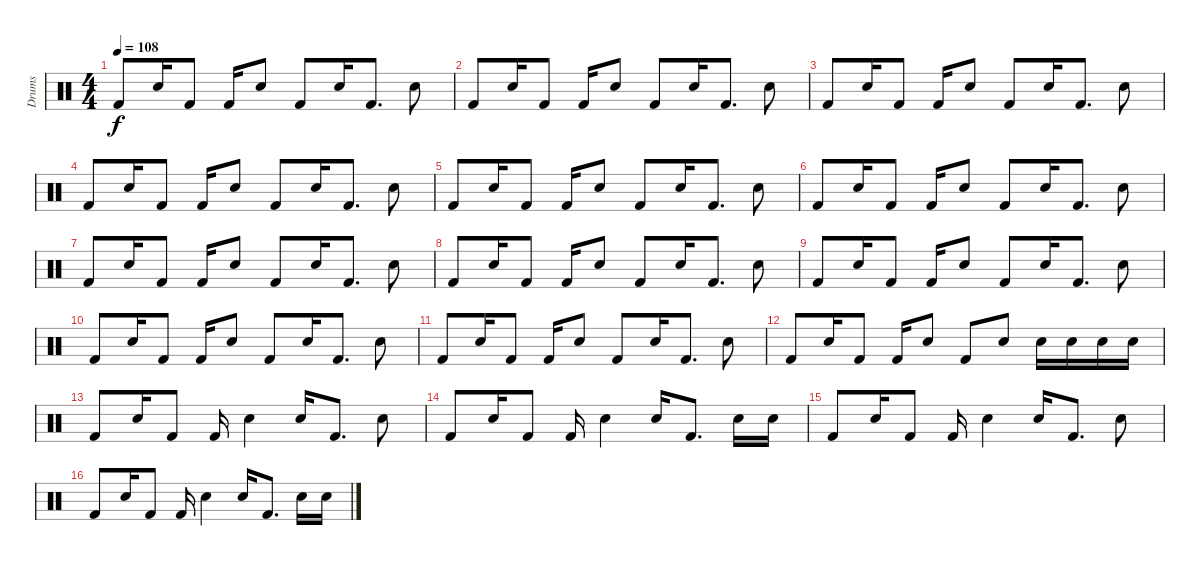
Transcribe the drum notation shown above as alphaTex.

\track ("Drums" "Drums") {instrument percussion}
\staff {score}
\articulation defaults
\ts (4 4)
\tempo 108
\clef neutral
\ks c "Kick (hit) 2".8{dy f} "Electric Snare (hit)".16 "Kick (hit) 2".8 "Kick (hit) 2".16 "Electric Snare (hit)".8 "Kick (hit) 2".8 "Electric Snare (hit)".16 "Kick (hit) 2".8{d} "Electric Snare (hit)".8
|
"Kick (hit) 2".8 "Electric Snare (hit)".16 "Kick (hit) 2".8 "Kick (hit) 2".16 "Electric Snare (hit)".8 "Kick (hit) 2".8 "Electric Snare (hit)".16 "Kick (hit) 2".8{d} "Electric Snare (hit)".8 |
"Kick (hit) 2".8 "Electric Snare (hit)".16 "Kick (hit) 2".8 "Kick (hit) 2".16 "Electric Snare (hit)".8 "Kick (hit) 2".8 "Electric Snare (hit)".16 "Kick (hit) 2".8{d} "Electric Snare (hit)".8 |
"Kick (hit) 2".8 "Electric Snare (hit)".16 "Kick (hit) 2".8 "Kick (hit) 2".16 "Electric Snare (hit)".8 "Kick (hit) 2".8 "Electric Snare (hit)".16 "Kick (hit) 2".8{d} "Electric Snare (hit)".8 |
"Kick (hit) 2".8 "Electric Snare (hit)".16 "Kick (hit) 2".8 "Kick (hit) 2".16 "Electric Snare (hit)".8 "Kick (hit) 2".8 "Electric Snare (hit)".16 "Kick (hit) 2".8{d} "Electric Snare (hit)".8 |
"Kick (hit) 2".8 "Electric Snare (hit)".16 "Kick (hit) 2".8 "Kick (hit) 2".16 "Electric Snare (hit)".8 "Kick (hit) 2".8 "Electric Snare (hit)".16 "Kick (hit) 2".8{d} "Electric Snare (hit)".8 |
"Kick (hit) 2".8 "Electric Snare (hit)".16 "Kick (hit) 2".8 "Kick (hit) 2".16 "Electric Snare (hit)".8 "Kick (hit) 2".8 "Electric Snare (hit)".16 "Kick (hit) 2".8{d} "Electric Snare (hit)".8 |
"Kick (hit) 2".8 "Electric Snare (hit)".16 "Kick (hit) 2".8 "Kick (hit) 2".16 "Electric Snare (hit)".8 "Kick (hit) 2".8 "Electric Snare (hit)".16 "Kick (hit) 2".8{d} "Electric Snare (hit)".8 |
"Kick (hit) 2".8 "Electric Snare (hit)".16 "Kick (hit) 2".8 "Kick (hit) 2".16 "Electric Snare (hit)".8 "Kick (hit) 2".8 "Electric Snare (hit)".16 "Kick (hit) 2".8{d} "Electric Snare (hit)".8 |
"Kick (hit) 2".8 "Electric Snare (hit)".16 "Kick (hit) 2".8 "Kick (hit) 2".16 "Electric Snare (hit)".8 "Kick (hit) 2".8 "Electric Snare (hit)".16 "Kick (hit) 2".8{d} "Electric Snare (hit)".8 |
"Kick (hit) 2".8 "Electric Snare (hit)".16 "Kick (hit) 2".8 "Kick (hit) 2".16 "Electric Snare (hit)".8 "Kick (hit) 2".8 "Electric Snare (hit)".16 "Kick (hit) 2".8{d} "Electric Snare (hit)".8 |
"Kick (hit) 2".8 "Electric Snare (hit)".16 "Kick (hit) 2".8 "Kick (hit) 2".16 "Electric Snare (hit)".8 "Kick (hit) 2".8 "Electric Snare (hit)".8 "Electric Snare (hit)".16 "Electric Snare (hit)".16 "Electric Snare (hit)".16 "Electric Snare (hit)".16 |
"Kick (hit) 2".8 "Electric Snare (hit)".16 "Kick (hit) 2".8 "Kick (hit) 2".16 "Electric Snare (hit)".4 "Electric Snare (hit)".16 "Kick (hit) 2".8{d} "Electric Snare (hit)".8 |
"Kick (hit) 2".8 "Electric Snare (hit)".16 "Kick (hit) 2".8 "Kick (hit) 2".16 "Electric Snare (hit)".4 "Electric Snare (hit)".16 "Kick (hit) 2".8{d} "Electric Snare (hit)".16 "Electric Snare (hit)".16 |
"Kick (hit) 2".8 "Electric Snare (hit)".16 "Kick (hit) 2".8 "Kick (hit) 2".16 "Electric Snare (hit)".4 "Electric Snare (hit)".16 "Kick (hit) 2".8{d} "Electric Snare (hit)".8 |
"Kick (hit) 2".8 "Electric Snare (hit)".16 "Kick (hit) 2".8 "Kick (hit) 2".16 "Electric Snare (hit)".4 "Electric Snare (hit)".16 "Kick (hit) 2".8{d} "Electric Snare (hit)".16 "Electric Snare (hit)".16
